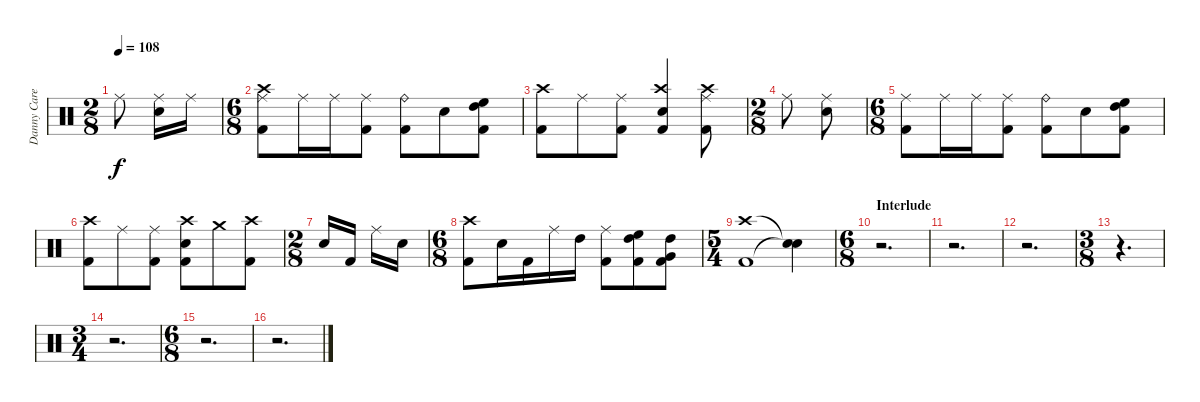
\track ("Danny Carey" "Danny Care") {instrument percussion}
\staff {score}
\articulation defaults
\ts (2 8)
\tempo 108
\clef neutral
\ks c "Ride (middle)".8{dy f}
("Ride (middle)" "Electric Snare (hit)").16 "Ride (middle)".16 |
\ts (6 8)
("Crash high (hit)" "Ride (middle)" "Kick (hit) 2").8 "Ride (middle)".16 "Ride (middle)".16 ("Ride (middle)" "Kick (hit) 2").8 ("Ride (bell)" "Kick (hit) 2").8 "Electric Snare (hit)".8 ("High Floor Tom (hit)" "High Tom (hit)" "Kick (hit) 2").8 |
("Crash high (hit)" "Kick (hit) 2").8 "Ride (middle)".8 ("Ride (middle)" "Kick (hit) 2").8 ("Crash high (hit)" "Electric Snare (hit)" "Kick (hit) 2").4 ("Crash high (hit)" "Ride (middle)" "Kick (hit) 2").8 |
\ts (2 8)
"Ride (middle)".8 ("Ride (middle)" "Electric Snare (hit)").8 |
\ts (6 8)
("Ride (middle)" "Kick (hit) 2").8 "Ride (middle)".16 "Ride (middle)".16 ("Ride (middle)" "Kick (hit) 2").8 ("Ride (bell)" "Kick (hit) 2").8 "Electric Snare (hit)".8 ("High Floor Tom (hit)" "High Tom (hit)" "Kick (hit) 2").8 |
("Crash high (hit)" "Kick (hit) 2").8 "Ride (middle)".8 ("Ride (middle)" "Kick (hit) 2").8 ("Crash high (hit)" "Electric Snare (hit)" "Kick (hit) 2").8 "Crash medium (hit)".8 ("Crash high (hit)" "Kick (hit) 2").8 |
\ts (2 8)
"Electric Snare (hit)".16 "Kick (hit) 2".16 "Ride (middle)".16 "Electric Snare (hit)".16 |
\ts (6 8)
("Crash high (hit)" "Kick (hit) 2").8 "Electric Snare (hit)".16 "Kick (hit) 2".16 "Ride (middle)".16 "High Tom (hit)".16 ("Ride (middle)" "Kick (hit) 2").8 ("High Floor Tom (hit)" "High Tom (hit)" "Kick (hit) 2").8 ("High Tom (hit)" "Very Low Tom (hit)" "Kick (hit) 2").8 |
\ts (5 4)
("Crash high (hit)" "Kick (hit) 2").1 ("Snare (hit)"{t} "Snare (hit)"{t}).4 |
\ts (6 8)
\section ("" "Interlude")
r.2{d} |
r.2{d} |
r.2{d} |
\ts (3 8)
r.4{d} |
\ts (3 4)
r.2{d} |
\ts (6 8)
r.2{d} |
r.2{d}
